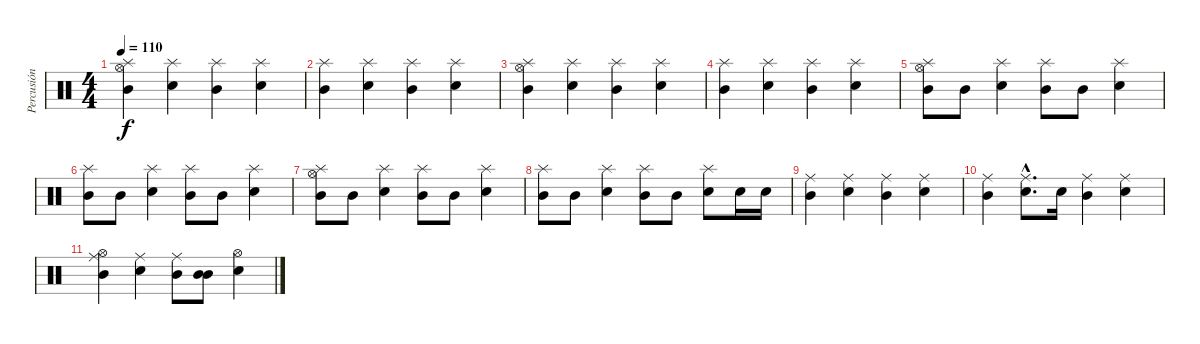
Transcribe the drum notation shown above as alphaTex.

\track ("Percusión" "Percusión") {instrument percussion}
\staff {score}
\articulation defaults
\ts (4 4)
\tempo 110
\clef neutral
\ks c
("Hi-Hat (open)" "Splash (hit)" "Mid Tom (hit)").4{dy f} ("Splash (hit)" "Electric Snare (hit)").4 ("Splash (hit)" "Mid Tom (hit)").4 ("Splash (hit)" "Electric Snare (hit)").4 |
("Splash (hit)" "Mid Tom (hit)").4 ("Splash (hit)" "Electric Snare (hit)").4 ("Splash (hit)" "Mid Tom (hit)").4 ("Splash (hit)" "Electric Snare (hit)").4 |
("Hi-Hat (open)" "Splash (hit)" "Mid Tom (hit)").4 ("Splash (hit)" "Electric Snare (hit)").4 ("Splash (hit)" "Mid Tom (hit)").4 ("Splash (hit)" "Electric Snare (hit)").4 |
("Splash (hit)" "Mid Tom (hit)").4 ("Splash (hit)" "Electric Snare (hit)").4 ("Splash (hit)" "Mid Tom (hit)").4 ("Splash (hit)" "Electric Snare (hit)").4 |
("Hi-Hat (open)" "Splash (hit)" "Mid Tom (hit)").8 "Mid Tom (hit)".8 ("Splash (hit)" "Electric Snare (hit)").4 ("Splash (hit)" "Mid Tom (hit)").8 "Mid Tom (hit)".8 ("Splash (hit)" "Electric Snare (hit)").4 |
("Splash (hit)" "Mid Tom (hit)").8 "Mid Tom (hit)".8 ("Splash (hit)" "Electric Snare (hit)").4 ("Splash (hit)" "Mid Tom (hit)").8 "Mid Tom (hit)".8 ("Splash (hit)" "Electric Snare (hit)").4 |
("Hi-Hat (open)" "Splash (hit)" "Mid Tom (hit)").8 "Mid Tom (hit)".8 ("Splash (hit)" "Electric Snare (hit)").4 ("Splash (hit)" "Mid Tom (hit)").8 "Mid Tom (hit)".8 ("Splash (hit)" "Electric Snare (hit)").4 |
("Splash (hit)" "Mid Tom (hit)").8 "Mid Tom (hit)".8 ("Splash (hit)" "Electric Snare (hit)").4 ("Splash (hit)" "Mid Tom (hit)").8 "Mid Tom (hit)".8 ("Splash (hit)" "Electric Snare (hit)").8 "Electric Snare (hit)".16 "Electric Snare (hit)".16 |
("Ride (middle)" "Mid Tom (hit)").4 ("Ride (middle)" "Electric Snare (hit)").4 ("Ride (middle)" "Mid Tom (hit)").4 ("Ride (middle)" "Electric Snare (hit)").4 |
("Ride (middle)" "Mid Tom (hit)").4 ("Ride (middle)"{hac} "Electric Snare (hit)"{hac}).8{d} "Electric Snare (hit)".16 ("Ride (middle)" "Mid Tom (hit)").4 ("Ride (middle)" "Electric Snare (hit)").4 |
("Hi-Hat (open)" "Ride (middle)" "Mid Tom (hit)").4 ("Ride (middle)" "Electric Snare (hit)").4 ("Ride (middle)" "Mid Tom (hit)").8 ("Mid Tom (hit)" "Mid Tom (hit)").8 ("Hi-Hat (open)" "Electric Snare (hit)").4
